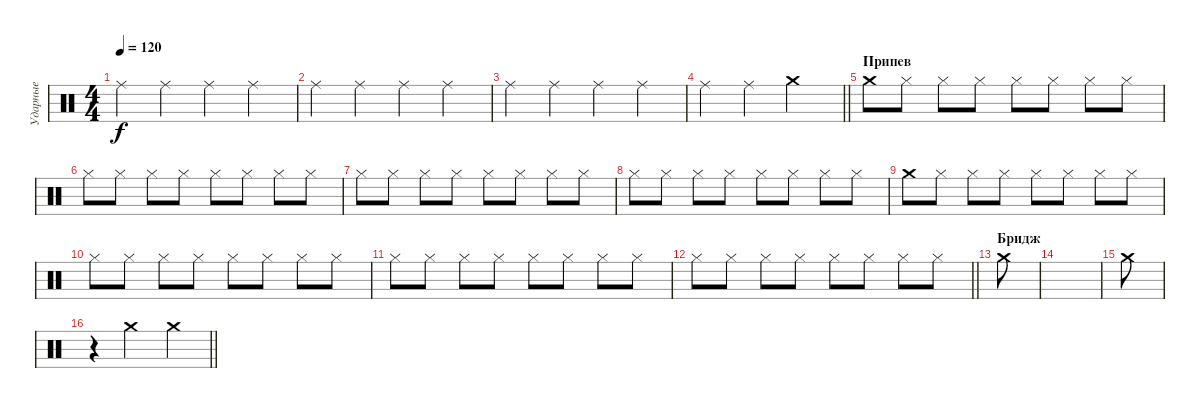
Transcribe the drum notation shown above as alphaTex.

\track ("Ударные" "Ударные") {instrument percussion}
\staff {score}
\articulation defaults
\ts (4 4)
\tempo 120
\clef neutral
\ks c "Ride (middle)".4{dy f} "Ride (middle)".4 "Ride (middle)".4 "Ride (middle)".4
|
"Ride (middle)".4 "Ride (middle)".4 "Ride (middle)".4 "Ride (middle)".4 |
"Ride (middle)".4 "Ride (middle)".4 "Ride (middle)".4 "Ride (middle)".4 |
\barLineRight lightlight "Ride (middle)".4 "Ride (middle)".4 "Crash medium (hit)".2
|
\section ("" "Припев")
"Crash medium (hit)".8 "Hi-Hat (closed)".8 "Hi-Hat (closed)".8 "Hi-Hat (closed)".8 "Hi-Hat (closed)".8 "Hi-Hat (closed)".8 "Hi-Hat (closed)".8 "Hi-Hat (closed)".8 |
"Hi-Hat (closed)".8 "Hi-Hat (closed)".8 "Hi-Hat (closed)".8 "Hi-Hat (closed)".8 "Hi-Hat (closed)".8 "Hi-Hat (closed)".8 "Hi-Hat (closed)".8 "Hi-Hat (closed)".8 |
"Hi-Hat (closed)".8 "Hi-Hat (closed)".8 "Hi-Hat (closed)".8 "Hi-Hat (closed)".8 "Hi-Hat (closed)".8 "Hi-Hat (closed)".8 "Hi-Hat (closed)".8 "Hi-Hat (closed)".8 |
"Hi-Hat (closed)".8 "Hi-Hat (closed)".8 "Hi-Hat (closed)".8 "Hi-Hat (closed)".8 "Hi-Hat (closed)".8 "Hi-Hat (closed)".8 "Hi-Hat (closed)".8 "Hi-Hat (closed)".8 |
"Crash medium (hit)".8 "Hi-Hat (closed)".8 "Hi-Hat (closed)".8 "Hi-Hat (closed)".8 "Hi-Hat (closed)".8 "Hi-Hat (closed)".8 "Hi-Hat (closed)".8 "Hi-Hat (closed)".8 |
"Hi-Hat (closed)".8 "Hi-Hat (closed)".8 "Hi-Hat (closed)".8 "Hi-Hat (closed)".8 "Hi-Hat (closed)".8 "Hi-Hat (closed)".8 "Hi-Hat (closed)".8 "Hi-Hat (closed)".8 |
"Hi-Hat (closed)".8 "Hi-Hat (closed)".8 "Hi-Hat (closed)".8 "Hi-Hat (closed)".8 "Hi-Hat (closed)".8 "Hi-Hat (closed)".8 "Hi-Hat (closed)".8 "Hi-Hat (closed)".8 |
\barLineRight lightlight "Hi-Hat (closed)".8 "Hi-Hat (closed)".8 "Hi-Hat (closed)".8 "Hi-Hat (closed)".8 "Hi-Hat (closed)".8 "Hi-Hat (closed)".8 "Hi-Hat (closed)".8 "Hi-Hat (closed)".8
|
\section ("" "Бридж")
"Crash medium (hit)".8 |
|
"Crash medium (hit)".8 |
\barLineRight lightlight
r.4 "Crash medium (hit)".2 "Crash medium (hit)".4
